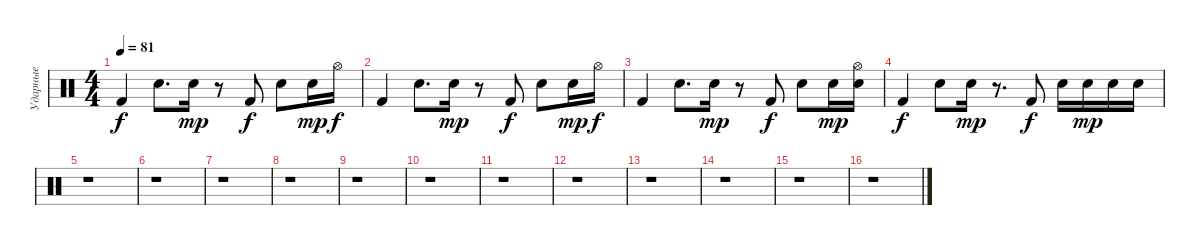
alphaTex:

\track ("Ударные" "Ударные") {instrument percussion}
\staff {score}
\articulation defaults
\ts (4 4)
\tempo 81
\clef neutral
\ks c "Kick (hit) 2".4{dy f} "Snare (hit) 2".8{d} "Electric Snare (hit)".16{dy mp}
r.8 "Kick (hit) 2".8{dy f} "Snare (hit) 2".8 "Electric Snare (hit)".16{dy mp} "Hi-Hat (open)".16{dy f} |
"Kick (hit) 2".4 "Snare (hit) 2".8{d} "Electric Snare (hit)".16{dy mp} r.8 "Kick (hit) 2".8{dy f} "Snare (hit) 2".8 "Electric Snare (hit)".16{dy mp} "Hi-Hat (open)".16{dy f} |
"Kick (hit) 2".4 "Snare (hit) 2".8{d} "Electric Snare (hit)".16{dy mp} r.8 "Kick (hit) 2".8{dy f} "Snare (hit) 2".8 "Electric Snare (hit)".16{dy mp} ("Hi-Hat (open)" "Electric Snare (hit)").16 |
"Kick (hit) 2".4{dy f} "Snare (hit) 2".8 "Electric Snare (hit)".16{dy mp} r.8{d} "Kick (hit) 2".8{dy f} "Snare (hit) 2".16 "Electric Snare (hit)".16{dy mp} "Electric Snare (hit)".16 "Electric Snare (hit)".16 |
r.1 |
r.1 |
r.1 |
r.1 |
r.1 |
r.1 |
r.1 |
r.1 |
r.1 |
r.1 |
r.1 |
r.1
